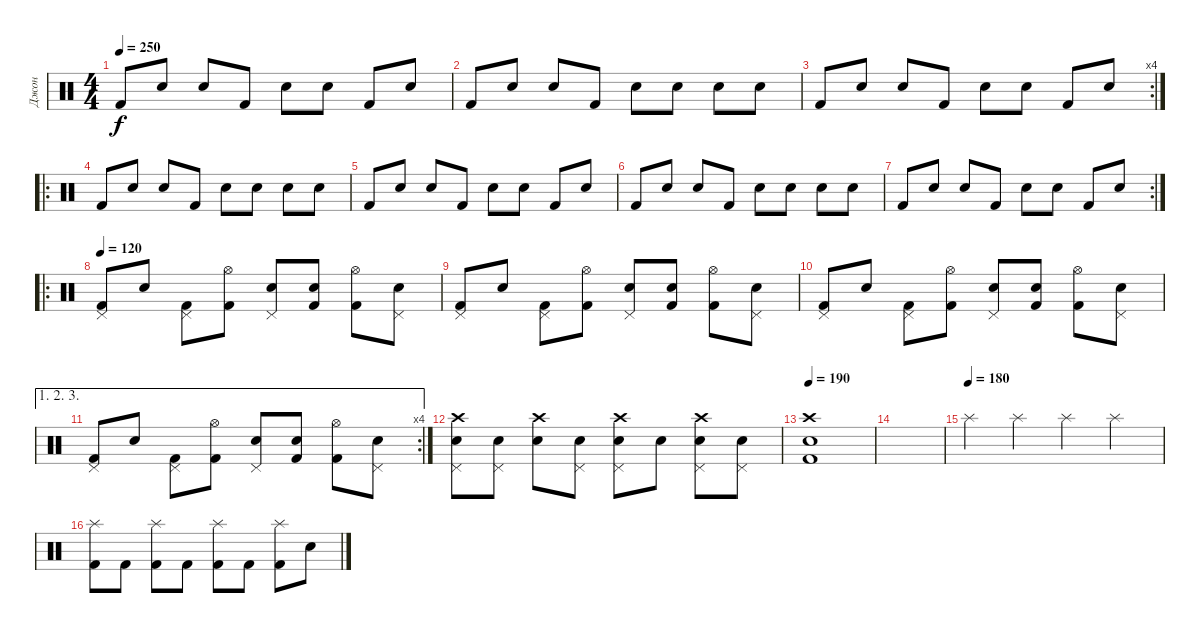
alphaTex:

\track ("Джон" "Джон") {instrument percussion}
\staff {score}
\articulation defaults
\ts (4 4)
\tempo 250
\clef neutral
\ks c "Kick (hit) 2".8{dy f} "Snare (hit)".8 "Snare (hit)".8 "Kick (hit) 2".8 "Electric Snare (hit)".8 "Snare (hit)".8 "Kick (hit) 2".8 "Snare (hit)".8
|
"Kick (hit) 2".8 "Snare (hit)".8 "Snare (hit)".8 "Kick (hit) 2".8 "Electric Snare (hit)".8 "Snare (hit)".8 "Snare (hit)".8 "Electric Snare (hit)".8 |
\rc 4 "Kick (hit) 2".8 "Snare (hit)".8 "Snare (hit)".8 "Kick (hit) 2".8 "Electric Snare (hit)".8 "Snare (hit)".8 "Kick (hit) 2".8 "Snare (hit)".8
|
\ro "Kick (hit) 2".8 "Snare (hit)".8 "Snare (hit)".8 "Kick (hit) 2".8 "Electric Snare (hit)".8 "Snare (hit)".8 "Snare (hit)".8 "Electric Snare (hit)".8
|
"Kick (hit) 2".8 "Snare (hit)".8 "Snare (hit)".8 "Kick (hit) 2".8 "Electric Snare (hit)".8 "Snare (hit)".8 "Kick (hit) 2".8 "Snare (hit)".8 |
"Kick (hit) 2".8 "Snare (hit)".8 "Snare (hit)".8 "Kick (hit) 2".8 "Electric Snare (hit)".8 "Snare (hit)".8 "Snare (hit)".8 "Electric Snare (hit)".8 |
\rc 2 "Kick (hit) 2".8 "Snare (hit)".8 "Snare (hit)".8 "Kick (hit) 2".8 "Electric Snare (hit)".8 "Snare (hit)".8 "Kick (hit) 2".8 "Snare (hit)".8
|
\ro
\tempo 120
("Kick (hit) 2" "Pedal Hi-Hat (hit)").8 "Snare (hit)".8 ("Kick (hit) 2" "Pedal Hi-Hat (hit)").8 ("Kick (hit) 2" "Hi-Hat (open)").8 ("Snare (hit) 2" "Pedal Hi-Hat (hit)").8 ("Kick (hit) 2" "Snare (hit)").8 ("Kick (hit) 2" "Hi-Hat (open)").8 ("Snare (hit) 2" "Pedal Hi-Hat (hit)").8 |
("Kick (hit) 2" "Pedal Hi-Hat (hit)").8 "Snare (hit)".8 ("Kick (hit) 2" "Pedal Hi-Hat (hit)").8 ("Kick (hit) 2" "Hi-Hat (open)").8 ("Snare (hit) 2" "Pedal Hi-Hat (hit)").8 ("Kick (hit) 2" "Snare (hit)").8 ("Kick (hit) 2" "Hi-Hat (open)").8 ("Snare (hit) 2" "Pedal Hi-Hat (hit)").8 |
("Kick (hit) 2" "Pedal Hi-Hat (hit)").8 "Snare (hit)".8 ("Kick (hit) 2" "Pedal Hi-Hat (hit)").8 ("Kick (hit) 2" "Hi-Hat (open)").8 ("Snare (hit) 2" "Pedal Hi-Hat (hit)").8 ("Kick (hit) 2" "Snare (hit)").8 ("Kick (hit) 2" "Hi-Hat (open)").8 ("Snare (hit) 2" "Pedal Hi-Hat (hit)").8 |
\ae (1 2 3)
\rc 4
("Kick (hit) 2" "Pedal Hi-Hat (hit)").8 "Snare (hit)".8 ("Kick (hit) 2" "Pedal Hi-Hat (hit)").8 ("Kick (hit) 2" "Hi-Hat (open)").8 ("Snare (hit) 2" "Pedal Hi-Hat (hit)").8 ("Kick (hit) 2" "Snare (hit)").8 ("Kick (hit) 2" "Hi-Hat (open)").8 ("Snare (hit) 2" "Pedal Hi-Hat (hit)").8 |
("Crash high (hit)" "Electric Snare (hit)" "Pedal Hi-Hat (hit)").8 ("Snare (hit)" "Pedal Hi-Hat (hit)").8 ("Crash high (hit)" "Electric Snare (hit)").8 ("Snare (hit)" "Pedal Hi-Hat (hit)").8 ("Crash high (hit)" "Electric Snare (hit)" "Pedal Hi-Hat (hit)").8 "Electric Snare (hit)".8 ("Crash high (hit)" "Snare (hit)" "Pedal Hi-Hat (hit)").8 ("Electric Snare (hit)" "Pedal Hi-Hat (hit)").8 |
\tempo 190
("Crash high (hit)" "Electric Snare (hit)" "Kick (hit) 2").1 |
|
\tempo (180)
"Splash (hit)".4 "Splash (hit)".4 "Splash (hit)".4 "Splash (hit)".4 |
("Splash (hit)" "Kick (hit) 2").8 "Kick (hit) 2".8 ("Splash (hit)" "Kick (hit) 2").8 "Kick (hit) 2".8 ("Splash (hit)" "Kick (hit) 2").8 "Kick (hit) 2".8 ("Splash (hit)" "Kick (hit) 2").8 "Snare (hit)".8
